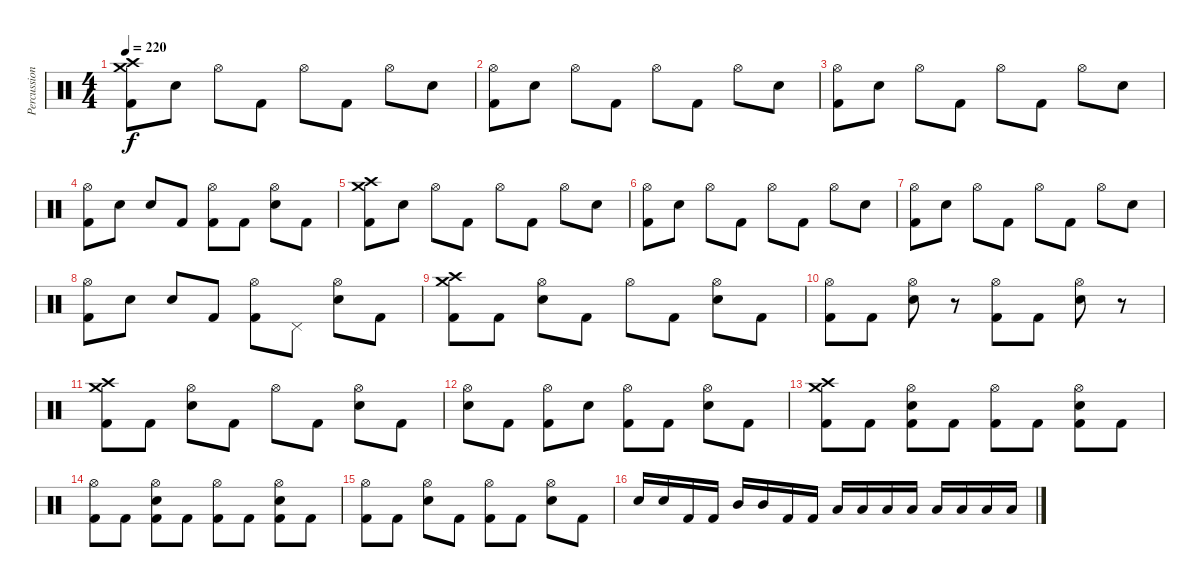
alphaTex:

\track ("Percussion" "Percussion") {instrument percussion}
\staff {score}
\articulation defaults
\ts (4 4)
\tempo 220
\clef neutral
\ks c
("Crash high (hit)" "Crash medium (hit)" "Kick (hit) 2").8{dy f} "Electric Snare (hit)".8 "Hi-Hat (open)".8 "Kick (hit) 2".8 "Hi-Hat (open)".8 "Kick (hit) 2".8 "Hi-Hat (open)".8 "Electric Snare (hit)".8 |
("Hi-Hat (open)" "Kick (hit) 2").8 "Electric Snare (hit)".8 "Hi-Hat (open)".8 "Kick (hit) 2".8 "Hi-Hat (open)".8 "Kick (hit) 2".8 "Hi-Hat (open)".8 "Electric Snare (hit)".8 |
("Hi-Hat (open)" "Kick (hit) 2").8 "Electric Snare (hit)".8 "Hi-Hat (open)".8 "Kick (hit) 2".8 "Hi-Hat (open)".8 "Kick (hit) 2".8 "Hi-Hat (open)".8 "Electric Snare (hit)".8 |
("Hi-Hat (open)" "Kick (hit) 2").8 "Electric Snare (hit)".8 "Electric Snare (hit)".8 "Kick (hit) 2".8 ("Hi-Hat (open)" "Kick (hit) 2").8 "Kick (hit) 2".8 ("Hi-Hat (open)" "Electric Snare (hit)").8 "Kick (hit) 2".8 |
("Crash high (hit)" "Crash medium (hit)" "Kick (hit) 2").8 "Electric Snare (hit)".8 "Hi-Hat (open)".8 "Kick (hit) 2".8 "Hi-Hat (open)".8 "Kick (hit) 2".8 "Hi-Hat (open)".8 "Electric Snare (hit)".8 |
("Hi-Hat (open)" "Kick (hit) 2").8 "Electric Snare (hit)".8 "Hi-Hat (open)".8 "Kick (hit) 2".8 "Hi-Hat (open)".8 "Kick (hit) 2".8 "Hi-Hat (open)".8 "Electric Snare (hit)".8 |
("Hi-Hat (open)" "Kick (hit) 2").8 "Electric Snare (hit)".8 "Hi-Hat (open)".8 "Kick (hit) 2".8 "Hi-Hat (open)".8 "Kick (hit) 2".8 "Hi-Hat (open)".8 "Electric Snare (hit)".8 |
("Hi-Hat (open)" "Kick (hit) 2").8 "Electric Snare (hit)".8 "Electric Snare (hit)".8 "Kick (hit) 2".8 ("Hi-Hat (open)" "Kick (hit) 2").8 "Pedal Hi-Hat (hit)".8 ("Hi-Hat (open)" "Electric Snare (hit)").8 "Kick (hit) 2".8 |
("Crash high (hit)" "Crash medium (hit)" "Kick (hit) 2").8 "Kick (hit) 2".8 ("Hi-Hat (open)" "Electric Snare (hit)").8 "Kick (hit) 2".8 "Hi-Hat (open)".8 "Kick (hit) 2".8 ("Hi-Hat (open)" "Electric Snare (hit)").8 "Kick (hit) 2".8 |
("Hi-Hat (open)" "Kick (hit) 2").8 "Kick (hit) 2".8 ("Hi-Hat (open)" "Electric Snare (hit)").8 r.8 ("Hi-Hat (open)" "Kick (hit) 2").8 "Kick (hit) 2".8 ("Hi-Hat (open)" "Electric Snare (hit)").8 r.8 |
("Crash high (hit)" "Crash medium (hit)" "Kick (hit) 2").8 "Kick (hit) 2".8 ("Hi-Hat (open)" "Electric Snare (hit)").8 "Kick (hit) 2".8 "Hi-Hat (open)".8 "Kick (hit) 2".8 ("Hi-Hat (open)" "Electric Snare (hit)").8 "Kick (hit) 2".8 |
("Hi-Hat (open)" "Electric Snare (hit)").8 "Kick (hit) 2".8 ("Hi-Hat (open)" "Kick (hit) 2").8 "Electric Snare (hit)".8 ("Hi-Hat (open)" "Kick (hit) 2").8 "Kick (hit) 2".8 ("Hi-Hat (open)" "Electric Snare (hit)").8 "Kick (hit) 2".8 |
("Crash high (hit)" "Crash medium (hit)" "Kick (hit) 2").8 "Kick (hit) 2".8 ("Hi-Hat (open)" "Electric Snare (hit)" "Kick (hit) 2").8 "Kick (hit) 2".8 ("Hi-Hat (open)" "Kick (hit) 2").8 "Kick (hit) 2".8 ("Hi-Hat (open)" "Electric Snare (hit)" "Kick (hit) 2").8 "Kick (hit) 2".8 |
("Hi-Hat (open)" "Kick (hit) 2").8 "Kick (hit) 2".8 ("Hi-Hat (open)" "Electric Snare (hit)" "Kick (hit) 2").8 "Kick (hit) 2".8 ("Hi-Hat (open)" "Kick (hit) 2").8 "Kick (hit) 2".8 ("Hi-Hat (open)" "Electric Snare (hit)" "Kick (hit) 2").8 "Kick (hit) 2".8 |
("Hi-Hat (open)" "Kick (hit) 2").8 "Kick (hit) 2".8 ("Hi-Hat (open)" "Electric Snare (hit)").8 "Kick (hit) 2".8 ("Hi-Hat (open)" "Kick (hit) 2").8 "Kick (hit) 2".8 ("Hi-Hat (open)" "Electric Snare (hit)").8 "Kick (hit) 2".8 |
"Electric Snare (hit)".16 "Electric Snare (hit)".16 "Kick (hit) 2".16 "Kick (hit) 2".16 "Mid Tom (hit)".16 "Mid Tom (hit)".16 "Kick (hit) 2".16 "Kick (hit) 2".16 "Low Tom (hit)".16 "Low Tom (hit)".16 "Low Tom (hit)".16 "Low Tom (hit)".16 "Low Floor Tom (hit)".16 "Low Floor Tom (hit)".16 "Low Floor Tom (hit)".16 "Low Floor Tom (hit)".16
